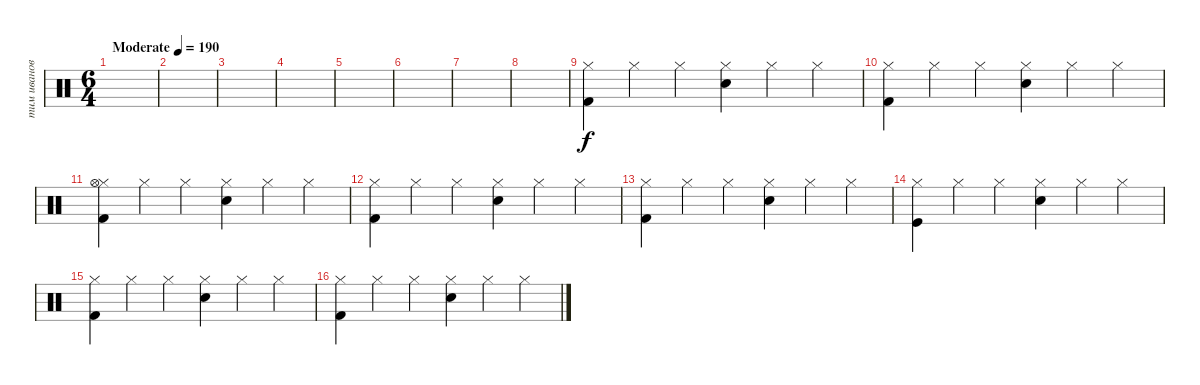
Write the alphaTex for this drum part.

\track ("тим иванов" "тим иванов") {instrument percussion}
\staff {score}
\articulation defaults
\ts (6 4)
\tempo (190 "Moderate")
\clef neutral
\ks c
|
|
|
|
|
|
|
|
("Hi-Hat (closed)" "Kick (hit) 2").4 "Hi-Hat (closed)".4 "Hi-Hat (closed)".4 ("Hi-Hat (closed)" "Electric Snare (hit)").4 "Hi-Hat (closed)".4 "Hi-Hat (closed)".4 |
("Hi-Hat (closed)" "Kick (hit) 2").4 "Hi-Hat (closed)".4 "Hi-Hat (closed)".4 ("Hi-Hat (closed)" "Electric Snare (hit)").4 "Hi-Hat (closed)".4 "Hi-Hat (closed)".4 |
("Hi-Hat (closed)" "Kick (hit) 2" "Hi-Hat (open)").4 "Hi-Hat (closed)".4 "Hi-Hat (closed)".4 ("Hi-Hat (closed)" "Electric Snare (hit)").4 "Hi-Hat (closed)".4 "Hi-Hat (closed)".4 |
("Hi-Hat (closed)" "Kick (hit) 2").4 "Hi-Hat (closed)".4 "Hi-Hat (closed)".4 ("Hi-Hat (closed)" "Electric Snare (hit)").4 "Hi-Hat (closed)".4 "Hi-Hat (closed)".4 |
("Hi-Hat (closed)" "Kick (hit) 2").4 "Hi-Hat (closed)".4 "Hi-Hat (closed)".4 ("Hi-Hat (closed)" "Electric Snare (hit)").4 "Hi-Hat (closed)".4 "Hi-Hat (closed)".4 |
("Hi-Hat (closed)" "Kick (hit)").4 "Hi-Hat (closed)".4 "Hi-Hat (closed)".4 ("Hi-Hat (closed)" "Electric Snare (hit)").4 "Hi-Hat (closed)".4 "Hi-Hat (closed)".4 |
("Hi-Hat (closed)" "Kick (hit) 2").4 "Hi-Hat (closed)".4 "Hi-Hat (closed)".4 ("Hi-Hat (closed)" "Electric Snare (hit)").4 "Hi-Hat (closed)".4 "Hi-Hat (closed)".4 |
("Hi-Hat (closed)" "Kick (hit) 2").4 "Hi-Hat (closed)".4 "Hi-Hat (closed)".4 ("Hi-Hat (closed)" "Electric Snare (hit)").4 "Hi-Hat (closed)".4 "Hi-Hat (closed)".4
